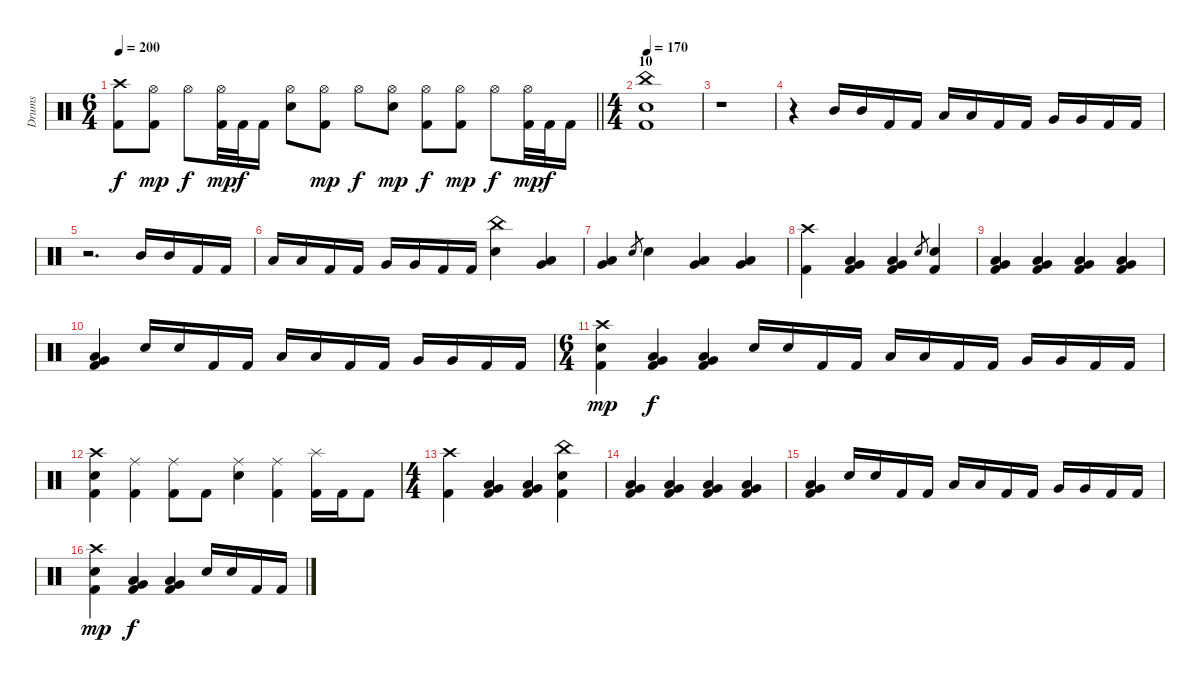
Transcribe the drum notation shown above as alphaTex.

\track ("Drums" "Drums") {instrument percussion}
\staff {score}
\articulation defaults
\ts (6 4)
\tempo 200
\clef neutral
\barLineRight lightlight
\ks c
("Crash high (hit)" "Kick (hit) 2").8{dy f} ("Hi-Hat (open)" "Kick (hit) 2").8{dy mp} "Hi-Hat (open)".8{dy f} ("Hi-Hat (open)" "Kick (hit) 2").32{dy mp} "Kick (hit) 2".32{dy f} "Kick (hit) 2".16 ("Hi-Hat (open)" "Electric Snare (hit)").8 ("Hi-Hat (open)" "Kick (hit) 2").8{dy mp} "Hi-Hat (open)".8{dy f} ("Hi-Hat (open)" "Electric Snare (hit)").8{dy mp} ("Hi-Hat (open)" "Kick (hit) 2").8{dy f} ("Hi-Hat (open)" "Kick (hit) 2").8{dy mp} "Hi-Hat (open)".8{dy f} ("Hi-Hat (open)" "Kick (hit) 2").32{dy mp} "Kick (hit) 2".32{dy f} "Kick (hit) 2".16 |
\ts (4 4)
\section ("" "10")
\tempo 170
("China (hit)" "Electric Snare (hit)" "Kick (hit) 2").1 |
r.1 |
r.4 "Mid Tom (hit)".16 "Mid Tom (hit)".16 "Kick (hit) 2".16 "Kick (hit) 2".16 "Low Tom (hit)".16 "Low Tom (hit)".16 "Kick (hit) 2".16 "Kick (hit) 2".16 "Very Low Tom (hit)".16 "Very Low Tom (hit)".16 "Kick (hit) 2".16 "Kick (hit) 2".16 |
r.2{d} "Mid Tom (hit)".16 "Mid Tom (hit)".16 "Kick (hit) 2".16 "Kick (hit) 2".16 |
"Low Tom (hit)".16 "Low Tom (hit)".16 "Kick (hit) 2".16 "Kick (hit) 2".16 "Very Low Tom (hit)".16 "Very Low Tom (hit)".16 "Kick (hit) 2".16 "Kick (hit) 2".16 ("China (hit)" "Electric Snare (hit)").4 ("Low Tom (hit)" "Very Low Tom (hit)").4 |
("Low Tom (hit)" "Very Low Tom (hit)").4 "Electric Snare (hit)".8{gr} "Electric Snare (hit)".4 ("Low Tom (hit)" "Very Low Tom (hit)").4 ("Low Tom (hit)" "Very Low Tom (hit)").4 |
("Crash high (hit)" "Kick (hit) 2").4 ("Low Tom (hit)" "Very Low Tom (hit)" "Kick (hit) 2").4 ("Low Tom (hit)" "Very Low Tom (hit)" "Kick (hit) 2").4 "Electric Snare (hit)".8{gr} ("Electric Snare (hit)" "Kick (hit) 2").4 |
("Low Tom (hit)" "Very Low Tom (hit)" "Kick (hit) 2").4 ("Low Tom (hit)" "Very Low Tom (hit)" "Kick (hit) 2").4 ("Low Tom (hit)" "Very Low Tom (hit)" "Kick (hit) 2").4 ("Low Tom (hit)" "Very Low Tom (hit)" "Kick (hit) 2").4 |
("Low Tom (hit)" "Very Low Tom (hit)" "Kick (hit) 2").4 "Electric Snare (hit)".16 "Electric Snare (hit)".16 "Kick (hit) 2".16 "Kick (hit) 2".16 "Low Tom (hit)".16 "Low Tom (hit)".16 "Kick (hit) 2".16 "Kick (hit) 2".16 "Very Low Tom (hit)".16 "Very Low Tom (hit)".16 "Kick (hit) 2".16 "Kick (hit) 2".16 |
\ts (6 4)
("Crash high (hit)" "Electric Snare (hit)" "Kick (hit) 2").4{dy mp} ("Low Tom (hit)" "Very Low Tom (hit)" "Kick (hit) 2").4{dy f} ("Low Tom (hit)" "Very Low Tom (hit)" "Kick (hit) 2").4 "Electric Snare (hit)".16 "Electric Snare (hit)".16 "Kick (hit) 2".16 "Kick (hit) 2".16 "Low Tom (hit)".16 "Low Tom (hit)".16 "Kick (hit) 2".16 "Kick (hit) 2".16 "Very Low Tom (hit)".16 "Very Low Tom (hit)".16 "Kick (hit) 2".16 "Kick (hit) 2".16 |
("Crash high (hit)" "Electric Snare (hit)" "Kick (hit) 2").4 ("Ride (middle)" "Kick (hit) 2").4 ("Ride (middle)" "Kick (hit) 2").8 "Kick (hit) 2".8 ("Ride (middle)" "Electric Snare (hit)").4 ("Ride (middle)" "Kick (hit) 2").4 ("Splash (hit)" "Kick (hit) 2").16 "Kick (hit) 2".16 "Kick (hit) 2".8 |
\ts (4 4)
("Crash high (hit)" "Kick (hit) 2").4 ("Low Tom (hit)" "Very Low Tom (hit)" "Kick (hit) 2").4 ("Low Tom (hit)" "Very Low Tom (hit)" "Kick (hit) 2").4 ("China (hit)" "Electric Snare (hit)" "Kick (hit) 2").4 |
("Low Tom (hit)" "Very Low Tom (hit)" "Kick (hit) 2").4 ("Low Tom (hit)" "Very Low Tom (hit)" "Kick (hit) 2").4 ("Low Tom (hit)" "Very Low Tom (hit)" "Kick (hit) 2").4 ("Low Tom (hit)" "Very Low Tom (hit)" "Kick (hit) 2").4 |
("Low Tom (hit)" "Very Low Tom (hit)" "Kick (hit) 2").4 "Electric Snare (hit)".16 "Electric Snare (hit)".16 "Kick (hit) 2".16 "Kick (hit) 2".16 "Low Tom (hit)".16 "Low Tom (hit)".16 "Kick (hit) 2".16 "Kick (hit) 2".16 "Very Low Tom (hit)".16 "Very Low Tom (hit)".16 "Kick (hit) 2".16 "Kick (hit) 2".16 |
("Crash high (hit)" "Electric Snare (hit)" "Kick (hit) 2").4{dy mp} ("Low Tom (hit)" "Very Low Tom (hit)" "Kick (hit) 2").4{dy f} ("Low Tom (hit)" "Very Low Tom (hit)" "Kick (hit) 2").4 "Electric Snare (hit)".16 "Electric Snare (hit)".16 "Kick (hit) 2".16 "Kick (hit) 2".16
